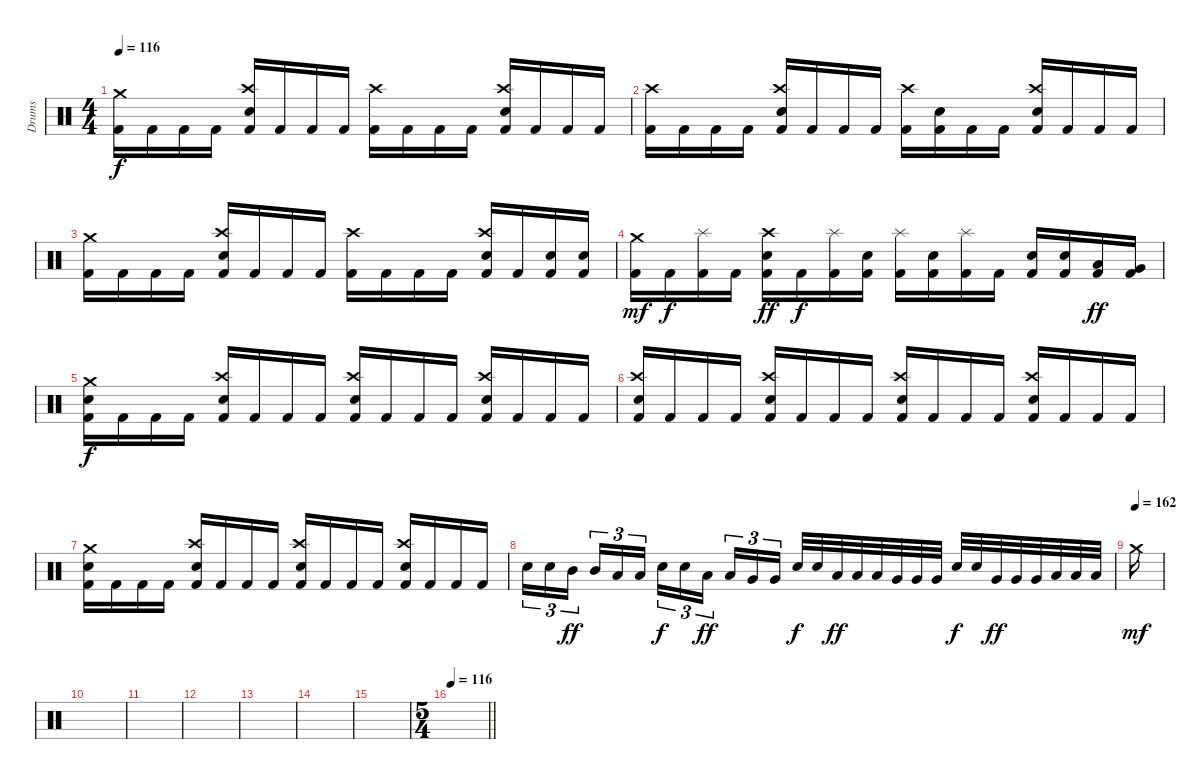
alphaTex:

\track ("Drums" "Drums") {instrument percussion}
\staff {score}
\articulation defaults
\ts (4 4)
\tempo 116
\clef neutral
\ks c
("Crash medium (hit)" "Kick (hit) 2").16{dy f} "Kick (hit) 2".16 "Kick (hit) 2".16 "Kick (hit) 2".16 ("Crash high (hit)" "Snare (hit) 2" "Kick (hit) 2").16 "Kick (hit) 2".16 "Kick (hit) 2".16 "Kick (hit) 2".16 ("Crash high (hit)" "Kick (hit) 2").16 "Kick (hit) 2".16 "Kick (hit) 2".16 "Kick (hit) 2".16 ("Crash high (hit)" "Snare (hit) 2" "Kick (hit) 2").16 "Kick (hit) 2".16 "Kick (hit) 2".16 "Kick (hit) 2".16 |
("Crash high (hit)" "Kick (hit) 2").16 "Kick (hit) 2".16 "Kick (hit) 2".16 "Kick (hit) 2".16 ("Crash high (hit)" "Snare (hit) 2" "Kick (hit) 2").16 "Kick (hit) 2".16 "Kick (hit) 2".16 "Kick (hit) 2".16 ("Crash high (hit)" "Kick (hit) 2").16 ("Snare (hit) 2" "Kick (hit) 2").16 "Kick (hit) 2".16 "Kick (hit) 2".16 ("Crash high (hit)" "Snare (hit) 2" "Kick (hit) 2").16 "Kick (hit) 2".16 "Kick (hit) 2".16 "Kick (hit) 2".16 |
("Crash medium (hit)" "Kick (hit) 2").16 "Kick (hit) 2".16 "Kick (hit) 2".16 "Kick (hit) 2".16 ("Crash high (hit)" "Snare (hit) 2" "Kick (hit) 2").16 "Kick (hit) 2".16 "Kick (hit) 2".16 "Kick (hit) 2".16 ("Crash high (hit)" "Kick (hit) 2").16 "Kick (hit) 2".16 "Kick (hit) 2".16 "Kick (hit) 2".16 ("Crash high (hit)" "Snare (hit) 2" "Kick (hit) 2").16 "Kick (hit) 2".16 ("Snare (hit) 2" "Kick (hit) 2").16 ("Snare (hit) 2" "Kick (hit) 2").16 |
("Crash medium (hit)" "Kick (hit) 2").16{dy mf} "Kick (hit) 2".16{dy f} ("Splash (hit)" "Kick (hit) 2").16 "Kick (hit) 2".16 ("Crash high (hit)" "Snare (hit) 2" "Kick (hit) 2").16{dy ff} "Kick (hit) 2".16{dy f} ("Splash (hit)" "Kick (hit) 2").16 ("Snare (hit) 2" "Kick (hit) 2").16 ("Splash (hit)" "Kick (hit) 2").16 ("Snare (hit) 2" "Kick (hit) 2").16 ("Splash (hit)" "Kick (hit) 2").16 "Kick (hit) 2".16 ("Snare (hit) 2" "Kick (hit) 2").16 ("Snare (hit) 2" "Kick (hit) 2").16 ("Low Tom (hit)" "Kick (hit) 2").16{dy ff} ("Very Low Tom (hit)" "Kick (hit) 2").16 |
("Crash medium (hit)" "Snare (hit) 2" "Kick (hit) 2").16{dy f} "Kick (hit) 2".16 "Kick (hit) 2".16 "Kick (hit) 2".16 ("Crash high (hit)" "Snare (hit) 2" "Kick (hit) 2").16 "Kick (hit) 2".16 "Kick (hit) 2".16 "Kick (hit) 2".16 ("Crash high (hit)" "Snare (hit) 2" "Kick (hit) 2").16 "Kick (hit) 2".16 "Kick (hit) 2".16 "Kick (hit) 2".16 ("Crash high (hit)" "Snare (hit) 2" "Kick (hit) 2").16 "Kick (hit) 2".16 "Kick (hit) 2".16 "Kick (hit) 2".16 |
("Crash high (hit)" "Snare (hit) 2" "Kick (hit) 2").16 "Kick (hit) 2".16 "Kick (hit) 2".16 "Kick (hit) 2".16 ("Crash high (hit)" "Snare (hit) 2" "Kick (hit) 2").16 "Kick (hit) 2".16 "Kick (hit) 2".16 "Kick (hit) 2".16 ("Crash high (hit)" "Snare (hit) 2" "Kick (hit) 2").16 "Kick (hit) 2".16 "Kick (hit) 2".16 "Kick (hit) 2".16 ("Crash high (hit)" "Snare (hit) 2" "Kick (hit) 2").16 "Kick (hit) 2".16 "Kick (hit) 2".16 "Kick (hit) 2".16 |
("Crash medium (hit)" "Snare (hit) 2" "Kick (hit) 2").16 "Kick (hit) 2".16 "Kick (hit) 2".16 "Kick (hit) 2".16 ("Crash high (hit)" "Snare (hit) 2" "Kick (hit) 2").16 "Kick (hit) 2".16 "Kick (hit) 2".16 "Kick (hit) 2".16 ("Crash high (hit)" "Snare (hit) 2" "Kick (hit) 2").16 "Kick (hit) 2".16 "Kick (hit) 2".16 "Kick (hit) 2".16 ("Crash high (hit)" "Snare (hit) 2" "Kick (hit) 2").16 "Kick (hit) 2".16 "Kick (hit) 2".16 "Kick (hit) 2".16 |
"Snare (hit) 2".16{tu (3 2)} "Snare (hit) 2".16{tu (3 2)} "Mid Tom (hit)".16{tu (3 2) dy ff} "Mid Tom (hit)".16{tu (3 2)} "Low Tom (hit)".16{tu (3 2)} "Low Tom (hit)".16{tu (3 2)} "Snare (hit) 2".16{tu (3 2) dy f} "Snare (hit) 2".16{tu (3 2)} "Low Tom (hit)".16{tu (3 2) dy ff} "Low Tom (hit)".16{tu (3 2)} "Very Low Tom (hit)".16{tu (3 2)} "Very Low Tom (hit)".16{tu (3 2)} "Snare (hit) 2".32{dy f} "Snare (hit) 2".32 "Low Tom (hit)".32{dy ff} "Low Tom (hit)".32 "Low Tom (hit)".32 "Very Low Tom (hit)".32 "Very Low Tom (hit)".32 "Very Low Tom (hit)".32 "Snare (hit) 2".32{dy f} "Snare (hit) 2".32 "Very Low Tom (hit)".32{dy ff} "Very Low Tom (hit)".32 "Very Low Tom (hit)".32 "Low Floor Tom (hit)".32 "Low Floor Tom (hit)".32 "Low Floor Tom (hit)".32 |
\tempo (162)
"Crash medium (hit)".16{dy mf} |
|
|
|
|
|
|
\ts (5 4)
\tempo 116
\barLineRight lightlight
